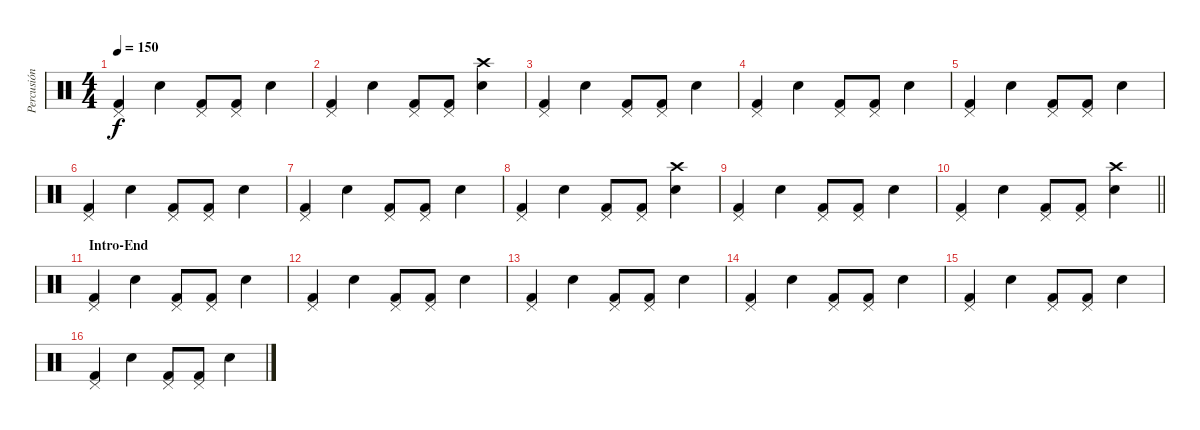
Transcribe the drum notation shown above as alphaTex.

\track ("Percusión" "Percusión") {instrument percussion}
\staff {score}
\articulation defaults
\ts (4 4)
\tempo 150
\clef neutral
\ks c
("Pedal Hi-Hat (hit)" "Kick (hit) 2").4{dy f} "Snare (hit) 2".4 ("Pedal Hi-Hat (hit)" "Kick (hit) 2").8 ("Pedal Hi-Hat (hit)" "Kick (hit) 2").8 "Snare (hit) 2".4 |
("Pedal Hi-Hat (hit)" "Kick (hit) 2").4 "Snare (hit) 2".4 ("Pedal Hi-Hat (hit)" "Kick (hit) 2").8 ("Pedal Hi-Hat (hit)" "Kick (hit) 2").8 ("Crash high (hit)" "Snare (hit) 2").4 |
("Pedal Hi-Hat (hit)" "Kick (hit) 2").4 "Snare (hit) 2".4 ("Pedal Hi-Hat (hit)" "Kick (hit) 2").8 ("Pedal Hi-Hat (hit)" "Kick (hit) 2").8 "Snare (hit) 2".4 |
("Pedal Hi-Hat (hit)" "Kick (hit) 2").4 "Snare (hit) 2".4 ("Pedal Hi-Hat (hit)" "Kick (hit) 2").8 ("Pedal Hi-Hat (hit)" "Kick (hit) 2").8 "Snare (hit) 2".4 |
("Pedal Hi-Hat (hit)" "Kick (hit) 2").4 "Snare (hit) 2".4 ("Pedal Hi-Hat (hit)" "Kick (hit) 2").8 ("Pedal Hi-Hat (hit)" "Kick (hit) 2").8 "Snare (hit) 2".4 |
("Pedal Hi-Hat (hit)" "Kick (hit) 2").4 "Snare (hit) 2".4 ("Pedal Hi-Hat (hit)" "Kick (hit) 2").8 ("Pedal Hi-Hat (hit)" "Kick (hit) 2").8 "Snare (hit) 2".4 |
("Pedal Hi-Hat (hit)" "Kick (hit) 2").4 "Snare (hit) 2".4 ("Pedal Hi-Hat (hit)" "Kick (hit) 2").8 ("Pedal Hi-Hat (hit)" "Kick (hit) 2").8 "Snare (hit) 2".4 |
("Pedal Hi-Hat (hit)" "Kick (hit) 2").4 "Snare (hit) 2".4 ("Pedal Hi-Hat (hit)" "Kick (hit) 2").8 ("Pedal Hi-Hat (hit)" "Kick (hit) 2").8 ("Crash high (hit)" "Snare (hit) 2").4 |
("Pedal Hi-Hat (hit)" "Kick (hit) 2").4 "Snare (hit) 2".4 ("Pedal Hi-Hat (hit)" "Kick (hit) 2").8 ("Pedal Hi-Hat (hit)" "Kick (hit) 2").8 "Snare (hit) 2".4 |
\barLineRight lightlight
("Pedal Hi-Hat (hit)" "Kick (hit) 2").4 "Snare (hit) 2".4 ("Pedal Hi-Hat (hit)" "Kick (hit) 2").8 ("Pedal Hi-Hat (hit)" "Kick (hit) 2").8 ("Crash high (hit)" "Snare (hit) 2").4 |
\section ("" "Intro-End")
("Pedal Hi-Hat (hit)" "Kick (hit) 2").4 "Snare (hit) 2".4 ("Pedal Hi-Hat (hit)" "Kick (hit) 2").8 ("Pedal Hi-Hat (hit)" "Kick (hit) 2").8 "Snare (hit) 2".4 |
("Pedal Hi-Hat (hit)" "Kick (hit) 2").4 "Snare (hit) 2".4 ("Pedal Hi-Hat (hit)" "Kick (hit) 2").8 ("Pedal Hi-Hat (hit)" "Kick (hit) 2").8 "Snare (hit) 2".4 |
("Pedal Hi-Hat (hit)" "Kick (hit) 2").4 "Snare (hit) 2".4 ("Pedal Hi-Hat (hit)" "Kick (hit) 2").8 ("Pedal Hi-Hat (hit)" "Kick (hit) 2").8 "Snare (hit) 2".4 |
("Pedal Hi-Hat (hit)" "Kick (hit) 2").4 "Snare (hit) 2".4 ("Pedal Hi-Hat (hit)" "Kick (hit) 2").8 ("Pedal Hi-Hat (hit)" "Kick (hit) 2").8 "Snare (hit) 2".4 |
("Pedal Hi-Hat (hit)" "Kick (hit) 2").4 "Snare (hit) 2".4 ("Pedal Hi-Hat (hit)" "Kick (hit) 2").8 ("Pedal Hi-Hat (hit)" "Kick (hit) 2").8 "Snare (hit) 2".4 |
("Pedal Hi-Hat (hit)" "Kick (hit) 2").4 "Snare (hit) 2".4 ("Pedal Hi-Hat (hit)" "Kick (hit) 2").8 ("Pedal Hi-Hat (hit)" "Kick (hit) 2").8 "Snare (hit) 2".4
